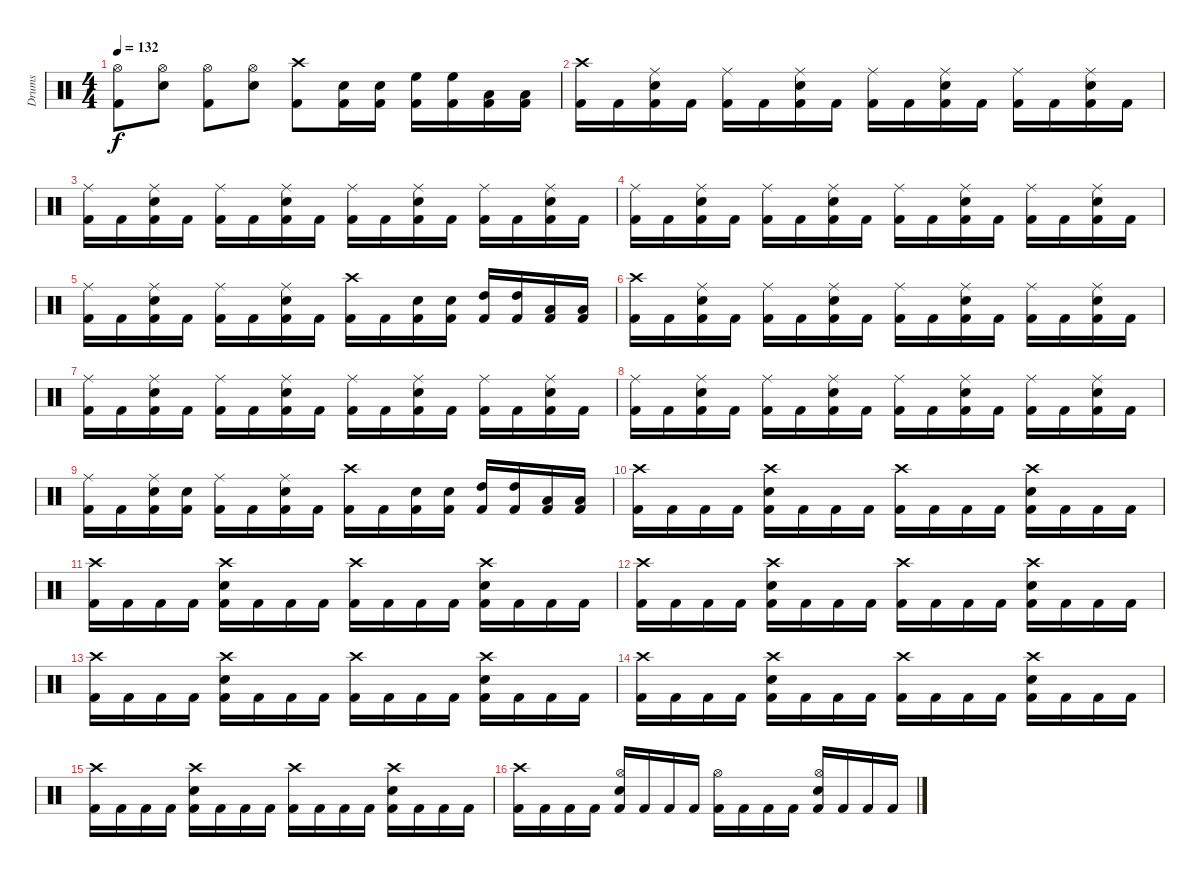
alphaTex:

\track ("Drums" "Drums") {instrument percussion}
\staff {score}
\articulation defaults
\ts (4 4)
\tempo 132
\clef neutral
\ks c
("Kick (hit) 2" "Hi-Hat (open)").8{dy f} ("Snare (hit) 2" "Hi-Hat (open)").8 ("Kick (hit) 2" "Hi-Hat (open)").8 ("Snare (hit) 2" "Hi-Hat (open)").8 ("Kick (hit) 2" "Crash high (hit)").8 ("Kick (hit) 2" "Snare (hit) 2").16 ("Kick (hit) 2" "Snare (hit) 2").16 ("Kick (hit) 2" "High Floor Tom (hit)").16 ("Kick (hit) 2" "High Floor Tom (hit)").16 ("Kick (hit) 2" "Low Tom (hit)").16 ("Kick (hit) 2" "Low Tom (hit)").16 |
("Kick (hit) 2" "Crash high (hit)").16 "Kick (hit) 2".16 ("Kick (hit) 2" "Snare (hit) 2" "Ride (middle)").16 "Kick (hit) 2".16 ("Kick (hit) 2" "Ride (middle)").16 "Kick (hit) 2".16 ("Kick (hit) 2" "Snare (hit) 2" "Ride (middle)").16 "Kick (hit) 2".16 ("Kick (hit) 2" "Ride (middle)").16 "Kick (hit) 2".16 ("Kick (hit) 2" "Snare (hit) 2" "Ride (middle)").16 "Kick (hit) 2".16 ("Kick (hit) 2" "Ride (middle)").16 "Kick (hit) 2".16 ("Kick (hit) 2" "Snare (hit) 2" "Ride (middle)").16 "Kick (hit) 2".16 |
("Kick (hit) 2" "Ride (middle)").16 "Kick (hit) 2".16 ("Kick (hit) 2" "Snare (hit) 2" "Ride (middle)").16 "Kick (hit) 2".16 ("Kick (hit) 2" "Ride (middle)").16 "Kick (hit) 2".16 ("Kick (hit) 2" "Snare (hit) 2" "Ride (middle)").16 "Kick (hit) 2".16 ("Kick (hit) 2" "Ride (middle)").16 "Kick (hit) 2".16 ("Kick (hit) 2" "Snare (hit) 2" "Ride (middle)").16 "Kick (hit) 2".16 ("Kick (hit) 2" "Ride (middle)").16 "Kick (hit) 2".16 ("Kick (hit) 2" "Snare (hit) 2" "Ride (middle)").16 "Kick (hit) 2".16 |
("Kick (hit) 2" "Ride (middle)").16 "Kick (hit) 2".16 ("Kick (hit) 2" "Snare (hit) 2" "Ride (middle)").16 "Kick (hit) 2".16 ("Kick (hit) 2" "Ride (middle)").16 "Kick (hit) 2".16 ("Kick (hit) 2" "Snare (hit) 2" "Ride (middle)").16 "Kick (hit) 2".16 ("Kick (hit) 2" "Ride (middle)").16 "Kick (hit) 2".16 ("Kick (hit) 2" "Snare (hit) 2" "Ride (middle)").16 "Kick (hit) 2".16 ("Kick (hit) 2" "Ride (middle)").16 "Kick (hit) 2".16 ("Kick (hit) 2" "Snare (hit) 2" "Ride (middle)").16 "Kick (hit) 2".16 |
("Kick (hit) 2" "Ride (middle)").16 "Kick (hit) 2".16 ("Kick (hit) 2" "Snare (hit) 2" "Ride (middle)").16 "Kick (hit) 2".16 ("Kick (hit) 2" "Ride (middle)").16 "Kick (hit) 2".16 ("Kick (hit) 2" "Snare (hit) 2" "Ride (middle)").16 "Kick (hit) 2".16 ("Kick (hit) 2" "Crash high (hit)").16 "Kick (hit) 2".16 ("Kick (hit) 2" "Snare (hit) 2").16 ("Kick (hit) 2" "Snare (hit) 2").16 ("Kick (hit) 2" "High Tom (hit)").16 ("Kick (hit) 2" "High Tom (hit)").16 ("Kick (hit) 2" "Low Tom (hit)").16 ("Kick (hit) 2" "Low Tom (hit)").16 |
("Kick (hit) 2" "Crash high (hit)").16 "Kick (hit) 2".16 ("Kick (hit) 2" "Snare (hit) 2" "Ride (middle)").16 "Kick (hit) 2".16 ("Kick (hit) 2" "Ride (middle)").16 "Kick (hit) 2".16 ("Kick (hit) 2" "Snare (hit) 2" "Ride (middle)").16 "Kick (hit) 2".16 ("Kick (hit) 2" "Ride (middle)").16 "Kick (hit) 2".16 ("Kick (hit) 2" "Snare (hit) 2" "Ride (middle)").16 "Kick (hit) 2".16 ("Kick (hit) 2" "Ride (middle)").16 "Kick (hit) 2".16 ("Kick (hit) 2" "Snare (hit) 2" "Ride (middle)").16 "Kick (hit) 2".16 |
("Kick (hit) 2" "Ride (middle)").16 "Kick (hit) 2".16 ("Kick (hit) 2" "Snare (hit) 2" "Ride (middle)").16 "Kick (hit) 2".16 ("Kick (hit) 2" "Ride (middle)").16 "Kick (hit) 2".16 ("Kick (hit) 2" "Snare (hit) 2" "Ride (middle)").16 "Kick (hit) 2".16 ("Kick (hit) 2" "Ride (middle)").16 "Kick (hit) 2".16 ("Kick (hit) 2" "Snare (hit) 2" "Ride (middle)").16 "Kick (hit) 2".16 ("Kick (hit) 2" "Ride (middle)").16 "Kick (hit) 2".16 ("Kick (hit) 2" "Snare (hit) 2" "Ride (middle)").16 "Kick (hit) 2".16 |
("Kick (hit) 2" "Ride (middle)").16 "Kick (hit) 2".16 ("Kick (hit) 2" "Snare (hit) 2" "Ride (middle)").16 "Kick (hit) 2".16 ("Kick (hit) 2" "Ride (middle)").16 "Kick (hit) 2".16 ("Kick (hit) 2" "Snare (hit) 2" "Ride (middle)").16 "Kick (hit) 2".16 ("Kick (hit) 2" "Ride (middle)").16 "Kick (hit) 2".16 ("Kick (hit) 2" "Snare (hit) 2" "Ride (middle)").16 "Kick (hit) 2".16 ("Kick (hit) 2" "Ride (middle)").16 "Kick (hit) 2".16 ("Kick (hit) 2" "Snare (hit) 2" "Ride (middle)").16 "Kick (hit) 2".16 |
("Kick (hit) 2" "Ride (middle)").16 "Kick (hit) 2".16 ("Kick (hit) 2" "Snare (hit) 2" "Ride (middle)").16 ("Kick (hit) 2" "Snare (hit) 2").16 ("Kick (hit) 2" "Ride (middle)").16 "Kick (hit) 2".16 ("Kick (hit) 2" "Snare (hit) 2" "Ride (middle)").16 "Kick (hit) 2".16 ("Kick (hit) 2" "Crash high (hit)").16 "Kick (hit) 2".16 ("Kick (hit) 2" "Snare (hit) 2").16 ("Kick (hit) 2" "Snare (hit) 2").16 ("Kick (hit) 2" "High Tom (hit)").16 ("Kick (hit) 2" "High Tom (hit)").16 ("Kick (hit) 2" "Low Tom (hit)").16 ("Kick (hit) 2" "Low Tom (hit)").16 |
("Kick (hit) 2" "Crash high (hit)").16 "Kick (hit) 2".16 "Kick (hit) 2".16 "Kick (hit) 2".16 ("Kick (hit) 2" "Snare (hit) 2" "Crash high (hit)").16 "Kick (hit) 2".16 "Kick (hit) 2".16 "Kick (hit) 2".16 ("Kick (hit) 2" "Crash high (hit)").16 "Kick (hit) 2".16 "Kick (hit) 2".16 "Kick (hit) 2".16 ("Kick (hit) 2" "Snare (hit) 2" "Crash high (hit)").16 "Kick (hit) 2".16 "Kick (hit) 2".16 "Kick (hit) 2".16 |
("Kick (hit) 2" "Crash high (hit)").16 "Kick (hit) 2".16 "Kick (hit) 2".16 "Kick (hit) 2".16 ("Kick (hit) 2" "Snare (hit) 2" "Crash high (hit)").16 "Kick (hit) 2".16 "Kick (hit) 2".16 "Kick (hit) 2".16 ("Kick (hit) 2" "Crash high (hit)").16 "Kick (hit) 2".16 "Kick (hit) 2".16 "Kick (hit) 2".16 ("Kick (hit) 2" "Snare (hit) 2" "Crash high (hit)").16 "Kick (hit) 2".16 "Kick (hit) 2".16 "Kick (hit) 2".16 |
("Kick (hit) 2" "Crash high (hit)").16 "Kick (hit) 2".16 "Kick (hit) 2".16 "Kick (hit) 2".16 ("Kick (hit) 2" "Snare (hit) 2" "Crash high (hit)").16 "Kick (hit) 2".16 "Kick (hit) 2".16 "Kick (hit) 2".16 ("Kick (hit) 2" "Crash high (hit)").16 "Kick (hit) 2".16 "Kick (hit) 2".16 "Kick (hit) 2".16 ("Kick (hit) 2" "Snare (hit) 2" "Crash high (hit)").16 "Kick (hit) 2".16 "Kick (hit) 2".16 "Kick (hit) 2".16 |
("Kick (hit) 2" "Crash high (hit)").16 "Kick (hit) 2".16 "Kick (hit) 2".16 "Kick (hit) 2".16 ("Kick (hit) 2" "Snare (hit) 2" "Crash high (hit)").16 "Kick (hit) 2".16 "Kick (hit) 2".16 "Kick (hit) 2".16 ("Kick (hit) 2" "Crash high (hit)").16 "Kick (hit) 2".16 "Kick (hit) 2".16 "Kick (hit) 2".16 ("Kick (hit) 2" "Snare (hit) 2" "Crash high (hit)").16 "Kick (hit) 2".16 "Kick (hit) 2".16 "Kick (hit) 2".16 |
("Kick (hit) 2" "Crash high (hit)").16 "Kick (hit) 2".16 "Kick (hit) 2".16 "Kick (hit) 2".16 ("Kick (hit) 2" "Snare (hit) 2" "Crash high (hit)").16 "Kick (hit) 2".16 "Kick (hit) 2".16 "Kick (hit) 2".16 ("Kick (hit) 2" "Crash high (hit)").16 "Kick (hit) 2".16 "Kick (hit) 2".16 "Kick (hit) 2".16 ("Kick (hit) 2" "Snare (hit) 2" "Crash high (hit)").16 "Kick (hit) 2".16 "Kick (hit) 2".16 "Kick (hit) 2".16 |
("Kick (hit) 2" "Crash high (hit)").16 "Kick (hit) 2".16 "Kick (hit) 2".16 "Kick (hit) 2".16 ("Kick (hit) 2" "Snare (hit) 2" "Crash high (hit)").16 "Kick (hit) 2".16 "Kick (hit) 2".16 "Kick (hit) 2".16 ("Kick (hit) 2" "Crash high (hit)").16 "Kick (hit) 2".16 "Kick (hit) 2".16 "Kick (hit) 2".16 ("Kick (hit) 2" "Snare (hit) 2" "Crash high (hit)").16 "Kick (hit) 2".16 "Kick (hit) 2".16 "Kick (hit) 2".16 |
("Kick (hit) 2" "Crash high (hit)").16 "Kick (hit) 2".16 "Kick (hit) 2".16 "Kick (hit) 2".16 ("Kick (hit) 2" "Snare (hit) 2" "Hi-Hat (open)").16 "Kick (hit) 2".16 "Kick (hit) 2".16 "Kick (hit) 2".16 ("Kick (hit) 2" "Hi-Hat (open)").16 "Kick (hit) 2".16 "Kick (hit) 2".16 "Kick (hit) 2".16 ("Kick (hit) 2" "Snare (hit) 2" "Hi-Hat (open)").16 "Kick (hit) 2".16 "Kick (hit) 2".16 "Kick (hit) 2".16
